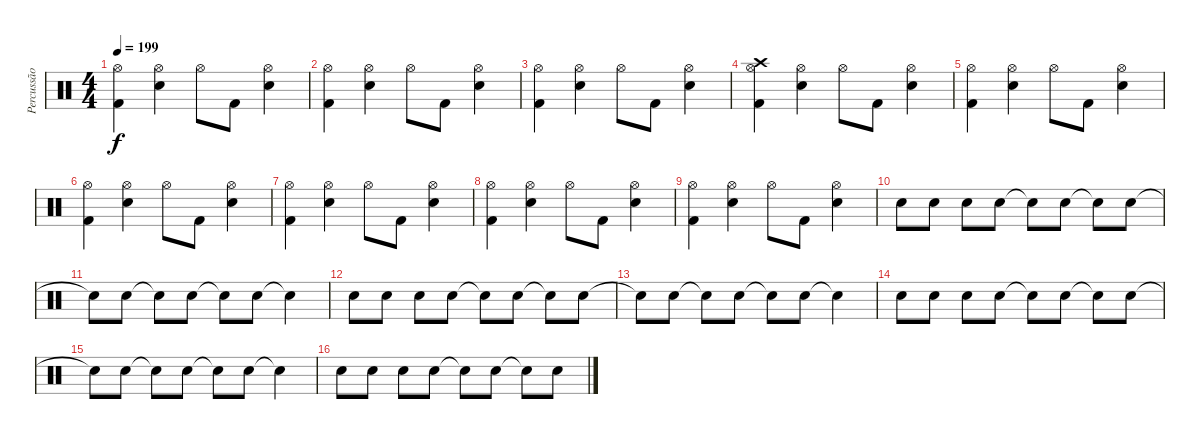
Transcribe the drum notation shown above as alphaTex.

\track ("Percussão" "Percussão") {instrument percussion}
\staff {score}
\articulation defaults
\ts (4 4)
\tempo 199
\clef neutral
\ks c
("Hi-Hat (open)" "Kick (hit) 2").4{dy f} ("Hi-Hat (open)" "Electric Snare (hit)").4 "Hi-Hat (open)".8 "Kick (hit) 2".8 ("Hi-Hat (open)" "Electric Snare (hit)").4 |
("Hi-Hat (open)" "Kick (hit) 2").4 ("Hi-Hat (open)" "Electric Snare (hit)").4 "Hi-Hat (open)".8 "Kick (hit) 2".8 ("Hi-Hat (open)" "Electric Snare (hit)").4 |
("Hi-Hat (open)" "Kick (hit) 2").4 ("Hi-Hat (open)" "Electric Snare (hit)").4 "Hi-Hat (open)".8 "Kick (hit) 2".8 ("Hi-Hat (open)" "Electric Snare (hit)").4 |
("Hi-Hat (open)" "Crash high (hit)" "Kick (hit) 2").4 ("Hi-Hat (open)" "Electric Snare (hit)").4 "Hi-Hat (open)".8 "Kick (hit) 2".8 ("Hi-Hat (open)" "Electric Snare (hit)").4 |
("Hi-Hat (open)" "Kick (hit) 2").4 ("Hi-Hat (open)" "Electric Snare (hit)").4 "Hi-Hat (open)".8 "Kick (hit) 2".8 ("Hi-Hat (open)" "Electric Snare (hit)").4 |
("Hi-Hat (open)" "Kick (hit) 2").4 ("Hi-Hat (open)" "Electric Snare (hit)").4 "Hi-Hat (open)".8 "Kick (hit) 2".8 ("Hi-Hat (open)" "Electric Snare (hit)").4 |
("Hi-Hat (open)" "Kick (hit) 2").4 ("Hi-Hat (open)" "Electric Snare (hit)").4 "Hi-Hat (open)".8 "Kick (hit) 2".8 ("Hi-Hat (open)" "Electric Snare (hit)").4 |
("Hi-Hat (open)" "Kick (hit) 2").4 ("Hi-Hat (open)" "Electric Snare (hit)").4 "Hi-Hat (open)".8 "Kick (hit) 2".8 ("Hi-Hat (open)" "Electric Snare (hit)").4 |
("Hi-Hat (open)" "Kick (hit) 2").4 ("Hi-Hat (open)" "Electric Snare (hit)").4 "Hi-Hat (open)".8 "Kick (hit) 2".8 ("Hi-Hat (open)" "Electric Snare (hit)").4 |
"Electric Snare (hit)".8 "Electric Snare (hit)".8 "Electric Snare (hit)".8 "Electric Snare (hit)".8 "Snare (hit)"{t}.8 "Electric Snare (hit)".8 "Snare (hit)"{t}.8 "Electric Snare (hit)".8 |
"Snare (hit)"{t}.8 "Electric Snare (hit)".8 "Snare (hit)"{t}.8 "Electric Snare (hit)".8 "Snare (hit)"{t}.8 "Electric Snare (hit)".8 "Snare (hit)"{t}.4 |
"Electric Snare (hit)".8 "Electric Snare (hit)".8 "Electric Snare (hit)".8 "Electric Snare (hit)".8 "Snare (hit)"{t}.8 "Electric Snare (hit)".8 "Snare (hit)"{t}.8 "Electric Snare (hit)".8 |
"Snare (hit)"{t}.8 "Electric Snare (hit)".8 "Snare (hit)"{t}.8 "Electric Snare (hit)".8 "Snare (hit)"{t}.8 "Electric Snare (hit)".8 "Snare (hit)"{t}.4 |
"Electric Snare (hit)".8 "Electric Snare (hit)".8 "Electric Snare (hit)".8 "Electric Snare (hit)".8 "Snare (hit)"{t}.8 "Electric Snare (hit)".8 "Snare (hit)"{t}.8 "Electric Snare (hit)".8 |
"Snare (hit)"{t}.8 "Electric Snare (hit)".8 "Snare (hit)"{t}.8 "Electric Snare (hit)".8 "Snare (hit)"{t}.8 "Electric Snare (hit)".8 "Snare (hit)"{t}.4 |
"Electric Snare (hit)".8 "Electric Snare (hit)".8 "Electric Snare (hit)".8 "Electric Snare (hit)".8 "Snare (hit)"{t}.8 "Electric Snare (hit)".8 "Snare (hit)"{t}.8 "Electric Snare (hit)".8
